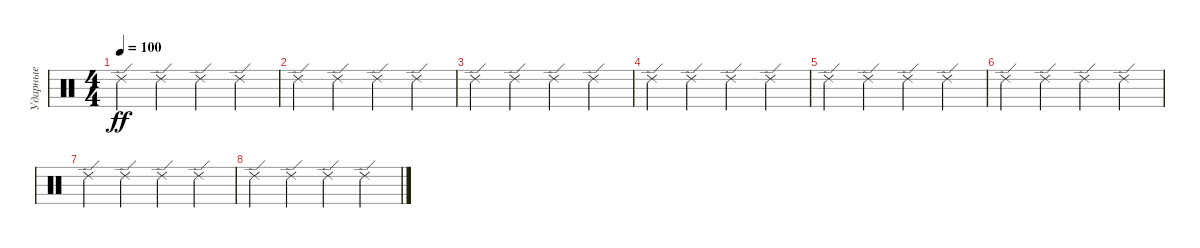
\track ("Ударные" "Ударные") {instrument percussion}
\staff {score}
\articulation defaults
\ts (4 4)
\tempo 100
\clef neutral
\ks c "Ride (edge) 2".4{dy ff} "Ride (edge) 2".4 "Ride (edge) 2".4 "Ride (edge) 2".4
|
"Ride (edge) 2".4 "Ride (edge) 2".4 "Ride (edge) 2".4 "Ride (edge) 2".4 |
"Ride (edge) 2".4 "Ride (edge) 2".4 "Ride (edge) 2".4 "Ride (edge) 2".4 |
"Ride (edge) 2".4 "Ride (edge) 2".4 "Ride (edge) 2".4 "Ride (edge) 2".4 |
"Ride (edge) 2".4 "Ride (edge) 2".4 "Ride (edge) 2".4 "Ride (edge) 2".4 |
"Ride (edge) 2".4 "Ride (edge) 2".4 "Ride (edge) 2".4 "Ride (edge) 2".4 |
"Ride (edge) 2".4 "Ride (edge) 2".4 "Ride (edge) 2".4 "Ride (edge) 2".4 |
"Ride (edge) 2".4 "Ride (edge) 2".4 "Ride (edge) 2".4 "Ride (edge) 2".4
